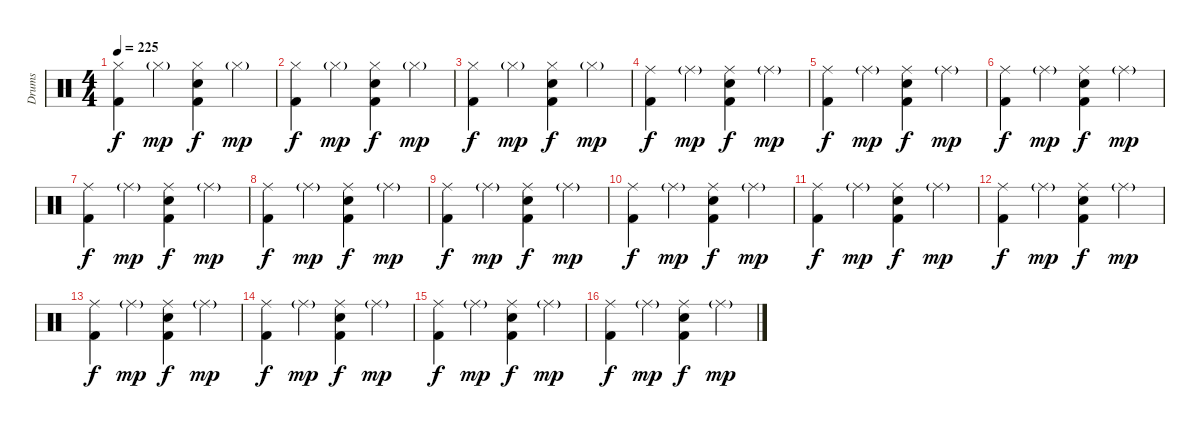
\track ("Drums" "Drums") {instrument percussion}
\staff {score}
\articulation defaults
\ts (4 4)
\tempo 225
\clef neutral
\ks c
("Hi-Hat (closed)" "Kick (hit) 2").4{dy f} "Hi-Hat (closed)"{g}.4{dy mp} ("Hi-Hat (closed)" "Snare (hit) 2" "Kick (hit) 2").4{dy f} "Hi-Hat (closed)"{g}.4{dy mp} |
("Hi-Hat (closed)" "Kick (hit) 2").4{dy f} "Hi-Hat (closed)"{g}.4{dy mp} ("Hi-Hat (closed)" "Snare (hit) 2" "Kick (hit) 2").4{dy f} "Hi-Hat (closed)"{g}.4{dy mp} |
("Hi-Hat (closed)" "Kick (hit) 2").4{dy f} "Hi-Hat (closed)"{g}.4{dy mp} ("Hi-Hat (closed)" "Snare (hit) 2" "Kick (hit) 2").4{dy f} "Hi-Hat (closed)"{g}.4{dy mp} |
("Ride (middle)" "Kick (hit) 2").4{dy f} "Ride (middle)"{g}.4{dy mp} ("Ride (middle)" "Snare (hit) 2" "Kick (hit) 2").4{dy f} "Ride (middle)"{g}.4{dy mp} |
("Ride (middle)" "Kick (hit) 2").4{dy f} "Ride (middle)"{g}.4{dy mp} ("Ride (middle)" "Snare (hit) 2" "Kick (hit) 2").4{dy f} "Ride (middle)"{g}.4{dy mp} |
("Ride (middle)" "Kick (hit) 2").4{dy f} "Ride (middle)"{g}.4{dy mp} ("Ride (middle)" "Snare (hit) 2" "Kick (hit) 2").4{dy f} "Ride (middle)"{g}.4{dy mp} |
("Ride (middle)" "Kick (hit) 2").4{dy f} "Ride (middle)"{g}.4{dy mp} ("Ride (middle)" "Snare (hit) 2" "Kick (hit) 2").4{dy f} "Ride (middle)"{g}.4{dy mp} |
("Ride (middle)" "Kick (hit) 2").4{dy f} "Ride (middle)"{g}.4{dy mp} ("Ride (middle)" "Snare (hit) 2" "Kick (hit) 2").4{dy f} "Ride (middle)"{g}.4{dy mp} |
("Ride (middle)" "Kick (hit) 2").4{dy f} "Ride (middle)"{g}.4{dy mp} ("Ride (middle)" "Snare (hit) 2" "Kick (hit) 2").4{dy f} "Ride (middle)"{g}.4{dy mp} |
("Ride (middle)" "Kick (hit) 2").4{dy f} "Ride (middle)"{g}.4{dy mp} ("Ride (middle)" "Snare (hit) 2" "Kick (hit) 2").4{dy f} "Ride (middle)"{g}.4{dy mp} |
("Ride (middle)" "Kick (hit) 2").4{dy f} "Ride (middle)"{g}.4{dy mp} ("Ride (middle)" "Snare (hit) 2" "Kick (hit) 2").4{dy f} "Ride (middle)"{g}.4{dy mp} |
("Ride (middle)" "Kick (hit) 2").4{dy f} "Ride (middle)"{g}.4{dy mp} ("Ride (middle)" "Snare (hit) 2" "Kick (hit) 2").4{dy f} "Ride (middle)"{g}.4{dy mp} |
("Ride (middle)" "Kick (hit) 2").4{dy f} "Ride (middle)"{g}.4{dy mp} ("Ride (middle)" "Snare (hit) 2" "Kick (hit) 2").4{dy f} "Ride (middle)"{g}.4{dy mp} |
("Ride (middle)" "Kick (hit) 2").4{dy f} "Ride (middle)"{g}.4{dy mp} ("Ride (middle)" "Snare (hit) 2" "Kick (hit) 2").4{dy f} "Ride (middle)"{g}.4{dy mp} |
("Ride (middle)" "Kick (hit) 2").4{dy f} "Ride (middle)"{g}.4{dy mp} ("Ride (middle)" "Snare (hit) 2" "Kick (hit) 2").4{dy f} "Ride (middle)"{g}.4{dy mp} |
("Ride (middle)" "Kick (hit) 2").4{dy f} "Ride (middle)"{g}.4{dy mp} ("Ride (middle)" "Snare (hit) 2" "Kick (hit) 2").4{dy f} "Ride (middle)"{g}.4{dy mp}
